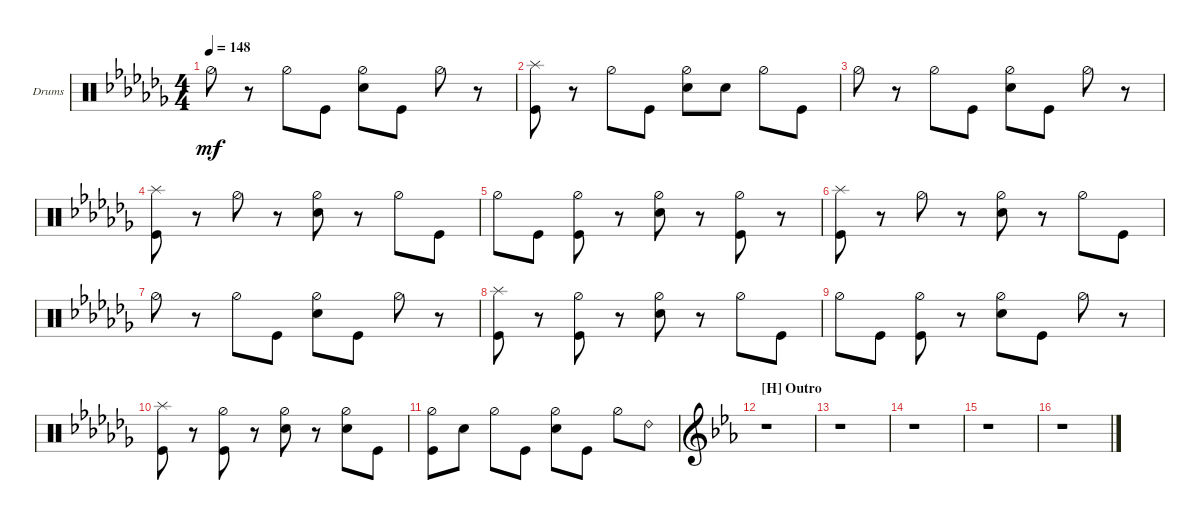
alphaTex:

\defaultSystemsLayout 4
\bracketExtendMode groupsimilarinstruments
\firstSystemTrackNameOrientation horizontal
\otherSystemsTrackNameOrientation horizontal
\track ("Drumkit" "Drums") {instrument percussion}
\staff {score}
\articulation defaults
\ts (4 4)
\tempo 148
\clef neutral
\ks abminor "Hi-Hat (half)".8{dy mf}
r.8 "Hi-Hat (half)".8 "Kick (hit)".8 ("Snare (hit) 2" "Hi-Hat (half)").8 "Kick (hit)".8 "Hi-Hat (half)".8 r.8 |
("Kick (hit)" "Splash (hit)").8 r.8 "Hi-Hat (half)".8 "Kick (hit)".8 ("Snare (hit) 2" "Hi-Hat (half)").8 "Snare (hit) 2".8 "Hi-Hat (half)".8 "Kick (hit)".8 |
"Hi-Hat (half)".8 r.8 "Hi-Hat (half)".8 "Kick (hit)".8 ("Hi-Hat (half)" "Snare (hit) 2").8 "Kick (hit)".8 "Hi-Hat (half)".8 r.8 |
("Splash (hit)" "Kick (hit)").8 r.8 "Hi-Hat (half)".8 r.8 ("Hi-Hat (half)" "Snare (hit) 2").8 r.8 "Hi-Hat (half)".8 "Kick (hit)".8 |
"Hi-Hat (half)".8 "Kick (hit)".8 ("Hi-Hat (half)" "Kick (hit)").8 r.8 ("Hi-Hat (half)" "Snare (hit) 2").8 r.8 ("Hi-Hat (half)" "Kick (hit)").8 r.8 |
("Splash (hit)" "Kick (hit)").8 r.8 "Hi-Hat (half)".8 r.8 ("Hi-Hat (half)" "Snare (hit) 2").8 r.8 "Hi-Hat (half)".8 "Kick (hit)".8 |
"Hi-Hat (half)".8 r.8 "Hi-Hat (half)".8 "Kick (hit)".8 ("Hi-Hat (half)" "Snare (hit) 2").8 "Kick (hit)".8 "Hi-Hat (half)".8 r.8 |
("Splash (hit)" "Kick (hit)").8 r.8 ("Hi-Hat (half)" "Kick (hit)").8 r.8 ("Hi-Hat (half)" "Snare (hit) 2").8 r.8 "Hi-Hat (half)".8 "Kick (hit)".8 |
"Hi-Hat (half)".8 "Kick (hit)".8 ("Hi-Hat (half)" "Kick (hit)").8 r.8 ("Hi-Hat (half)" "Snare (hit) 2").8 "Kick (hit)".8 "Hi-Hat (half)".8 r.8 |
("Splash (hit)" "Kick (hit)").8 r.8 ("Hi-Hat (half)" "Kick (hit)").8 r.8 ("Hi-Hat (half)" "Snare (hit) 2").8 r.8 ("Hi-Hat (half)" "Snare (hit) 2").8 "Kick (hit)".8 |
("Kick (hit)" "Hi-Hat (half)").8 "Snare (hit) 2".8 "Hi-Hat (half)".8 "Kick (hit)".8 ("Hi-Hat (half)" "Snare (hit) 2").8 "Kick (hit)".8 "Hi-Hat (half)".8 "Ride (bell) 2".8 |
\section ("H" "Outro")
\clef g2
\ks cminor
r.1 |
r.1 |
r.1 |
r.1 |
r.1
